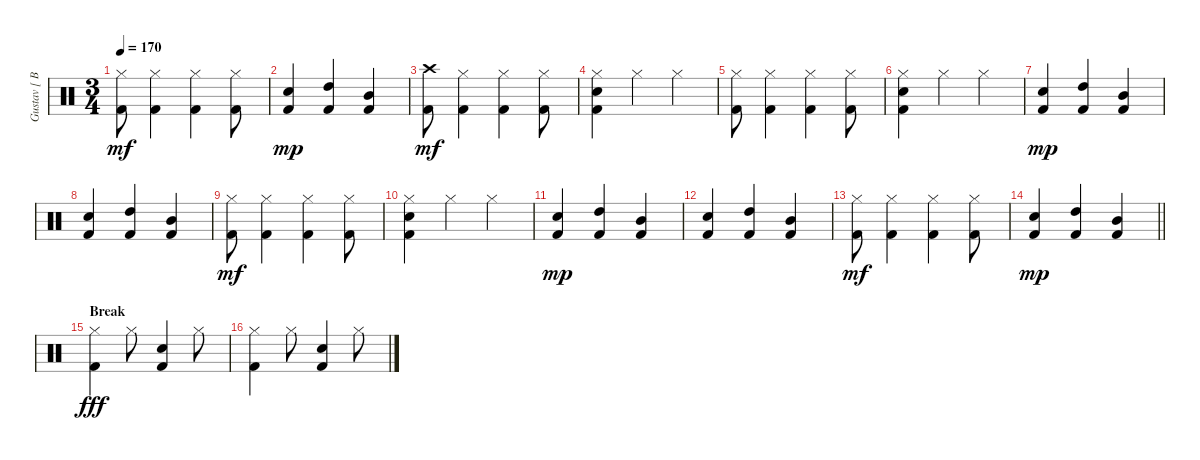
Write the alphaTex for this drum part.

\track ("Gustav [ Batterie ]" "Gustav [ B") {instrument percussion}
\staff {score}
\articulation defaults
\ts (3 4)
\tempo 170
\clef neutral
\ks c
("Hi-Hat (closed)" "Kick (hit) 2").8{dy mf} ("Hi-Hat (closed)" "Kick (hit) 2").4 ("Hi-Hat (closed)" "Kick (hit) 2").4 ("Hi-Hat (closed)" "Kick (hit) 2").8 |
("Snare (hit) 2" "Kick (hit) 2").4{dy mp} ("High Tom (hit)" "Kick (hit) 2").4 ("Mid Tom (hit)" "Kick (hit) 2").4 |
("Crash high (hit)" "Kick (hit) 2").8{dy mf} ("Hi-Hat (closed)" "Kick (hit) 2").4 ("Hi-Hat (closed)" "Kick (hit) 2").4 ("Hi-Hat (closed)" "Kick (hit) 2").8 |
("Hi-Hat (closed)" "Snare (hit) 2" "Kick (hit) 2").4 "Hi-Hat (closed)".4 "Hi-Hat (closed)".4 |
("Hi-Hat (closed)" "Kick (hit) 2").8 ("Hi-Hat (closed)" "Kick (hit) 2").4 ("Hi-Hat (closed)" "Kick (hit) 2").4 ("Hi-Hat (closed)" "Kick (hit) 2").8 |
("Hi-Hat (closed)" "Snare (hit) 2" "Kick (hit) 2").4 "Hi-Hat (closed)".4 "Hi-Hat (closed)".4 |
("Snare (hit) 2" "Kick (hit) 2").4{dy mp} ("High Tom (hit)" "Kick (hit) 2").4 ("Mid Tom (hit)" "Kick (hit) 2").4 |
("Snare (hit) 2" "Kick (hit) 2").4 ("High Tom (hit)" "Kick (hit) 2").4 ("Mid Tom (hit)" "Kick (hit) 2").4 |
("Hi-Hat (closed)" "Kick (hit) 2").8{dy mf} ("Hi-Hat (closed)" "Kick (hit) 2").4 ("Hi-Hat (closed)" "Kick (hit) 2").4 ("Hi-Hat (closed)" "Kick (hit) 2").8 |
("Hi-Hat (closed)" "Snare (hit) 2" "Kick (hit) 2").4 "Hi-Hat (closed)".4 "Hi-Hat (closed)".4 |
("Snare (hit) 2" "Kick (hit) 2").4{dy mp} ("High Tom (hit)" "Kick (hit) 2").4 ("Mid Tom (hit)" "Kick (hit) 2").4 |
("Snare (hit) 2" "Kick (hit) 2").4 ("High Tom (hit)" "Kick (hit) 2").4 ("Mid Tom (hit)" "Kick (hit) 2").4 |
("Hi-Hat (closed)" "Kick (hit) 2").8{dy mf} ("Hi-Hat (closed)" "Kick (hit) 2").4 ("Hi-Hat (closed)" "Kick (hit) 2").4 ("Hi-Hat (closed)" "Kick (hit) 2").8 |
\barLineRight lightlight
("Snare (hit) 2" "Kick (hit) 2").4{dy mp} ("High Tom (hit)" "Kick (hit) 2").4 ("Mid Tom (hit)" "Kick (hit) 2").4 |
\section ("" "Break")
("Hi-Hat (closed)" "Kick (hit) 2").4{dy fff} "Hi-Hat (closed)".8 ("Snare (hit) 2" "Kick (hit) 2").4 "Hi-Hat (closed)".8 |
("Hi-Hat (closed)" "Kick (hit) 2").4 "Hi-Hat (closed)".8 ("Snare (hit) 2" "Kick (hit) 2").4 "Hi-Hat (closed)".8
